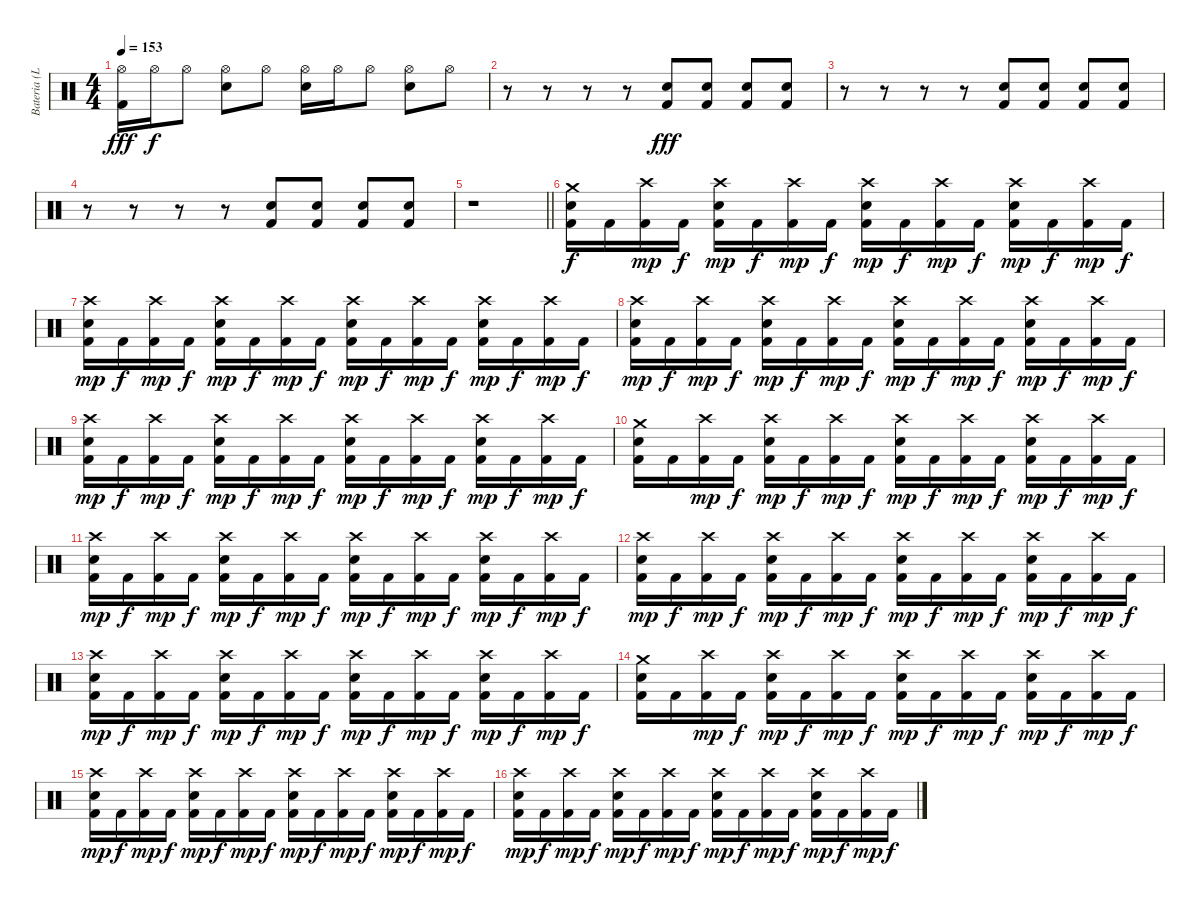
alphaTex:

\track ("Bateria (Lars)" "Bateria (L") {instrument percussion}
\staff {score}
\articulation defaults
\ts (4 4)
\tempo 153
\clef neutral
\ks c
("Hi-Hat (open)" "Kick (hit) 2").16{dy fff} "Hi-Hat (open)".16{dy f} "Hi-Hat (open)".8 ("Hi-Hat (open)" "Electric Snare (hit)").8 "Hi-Hat (open)".8 ("Hi-Hat (open)" "Electric Snare (hit)").16 "Hi-Hat (open)".16 "Hi-Hat (open)".8 ("Hi-Hat (open)" "Electric Snare (hit)").8 "Hi-Hat (open)".8 |
r.8 r.8 r.8 r.8 ("Electric Snare (hit)" "Kick (hit) 2").8{dy fff} ("Electric Snare (hit)" "Kick (hit) 2").8 ("Electric Snare (hit)" "Kick (hit) 2").8 ("Electric Snare (hit)" "Kick (hit) 2").8 |
r.8 r.8 r.8 r.8 ("Electric Snare (hit)" "Kick (hit) 2").8 ("Electric Snare (hit)" "Kick (hit) 2").8 ("Electric Snare (hit)" "Kick (hit) 2").8 ("Electric Snare (hit)" "Kick (hit) 2").8 |
r.8 r.8 r.8 r.8 ("Electric Snare (hit)" "Kick (hit) 2").8 ("Electric Snare (hit)" "Kick (hit) 2").8 ("Electric Snare (hit)" "Kick (hit) 2").8 ("Electric Snare (hit)" "Kick (hit) 2").8 |
\barLineRight lightlight
r.1 |
("Crash medium (hit)" "Electric Snare (hit)" "Kick (hit) 2").16{dy f} "Kick (hit) 2".16 ("Crash high (hit)" "Kick (hit) 2").16{dy mp} "Kick (hit) 2".16{dy f} ("Crash high (hit)" "Electric Snare (hit)" "Kick (hit) 2").16{dy mp} "Kick (hit) 2".16{dy f} ("Crash high (hit)" "Kick (hit) 2").16{dy mp} "Kick (hit) 2".16{dy f} ("Crash high (hit)" "Electric Snare (hit)" "Kick (hit) 2").16{dy mp} "Kick (hit) 2".16{dy f} ("Crash high (hit)" "Kick (hit) 2").16{dy mp} "Kick (hit) 2".16{dy f} ("Crash high (hit)" "Electric Snare (hit)" "Kick (hit) 2").16{dy mp} "Kick (hit) 2".16{dy f} ("Crash high (hit)" "Kick (hit) 2").16{dy mp} "Kick (hit) 2".16{dy f} |
("Crash high (hit)" "Electric Snare (hit)" "Kick (hit) 2").16{dy mp} "Kick (hit) 2".16{dy f} ("Crash high (hit)" "Kick (hit) 2").16{dy mp} "Kick (hit) 2".16{dy f} ("Crash high (hit)" "Electric Snare (hit)" "Kick (hit) 2").16{dy mp} "Kick (hit) 2".16{dy f} ("Crash high (hit)" "Kick (hit) 2").16{dy mp} "Kick (hit) 2".16{dy f} ("Crash high (hit)" "Electric Snare (hit)" "Kick (hit) 2").16{dy mp} "Kick (hit) 2".16{dy f} ("Crash high (hit)" "Kick (hit) 2").16{dy mp} "Kick (hit) 2".16{dy f} ("Crash high (hit)" "Electric Snare (hit)" "Kick (hit) 2").16{dy mp} "Kick (hit) 2".16{dy f} ("Crash high (hit)" "Kick (hit) 2").16{dy mp} "Kick (hit) 2".16{dy f} |
("Crash high (hit)" "Electric Snare (hit)" "Kick (hit) 2").16{dy mp} "Kick (hit) 2".16{dy f} ("Crash high (hit)" "Kick (hit) 2").16{dy mp} "Kick (hit) 2".16{dy f} ("Crash high (hit)" "Electric Snare (hit)" "Kick (hit) 2").16{dy mp} "Kick (hit) 2".16{dy f} ("Crash high (hit)" "Kick (hit) 2").16{dy mp} "Kick (hit) 2".16{dy f} ("Crash high (hit)" "Electric Snare (hit)" "Kick (hit) 2").16{dy mp} "Kick (hit) 2".16{dy f} ("Crash high (hit)" "Kick (hit) 2").16{dy mp} "Kick (hit) 2".16{dy f} ("Crash high (hit)" "Electric Snare (hit)" "Kick (hit) 2").16{dy mp} "Kick (hit) 2".16{dy f} ("Crash high (hit)" "Kick (hit) 2").16{dy mp} "Kick (hit) 2".16{dy f} |
("Crash high (hit)" "Electric Snare (hit)" "Kick (hit) 2").16{dy mp} "Kick (hit) 2".16{dy f} ("Crash high (hit)" "Kick (hit) 2").16{dy mp} "Kick (hit) 2".16{dy f} ("Crash high (hit)" "Electric Snare (hit)" "Kick (hit) 2").16{dy mp} "Kick (hit) 2".16{dy f} ("Crash high (hit)" "Kick (hit) 2").16{dy mp} "Kick (hit) 2".16{dy f} ("Crash high (hit)" "Electric Snare (hit)" "Kick (hit) 2").16{dy mp} "Kick (hit) 2".16{dy f} ("Crash high (hit)" "Kick (hit) 2").16{dy mp} "Kick (hit) 2".16{dy f} ("Crash high (hit)" "Electric Snare (hit)" "Kick (hit) 2").16{dy mp} "Kick (hit) 2".16{dy f} ("Crash high (hit)" "Kick (hit) 2").16{dy mp} "Kick (hit) 2".16{dy f} |
("Crash medium (hit)" "Electric Snare (hit)" "Kick (hit) 2").16 "Kick (hit) 2".16 ("Crash high (hit)" "Kick (hit) 2").16{dy mp} "Kick (hit) 2".16{dy f} ("Crash high (hit)" "Electric Snare (hit)" "Kick (hit) 2").16{dy mp} "Kick (hit) 2".16{dy f} ("Crash high (hit)" "Kick (hit) 2").16{dy mp} "Kick (hit) 2".16{dy f} ("Crash high (hit)" "Electric Snare (hit)" "Kick (hit) 2").16{dy mp} "Kick (hit) 2".16{dy f} ("Crash high (hit)" "Kick (hit) 2").16{dy mp} "Kick (hit) 2".16{dy f} ("Crash high (hit)" "Electric Snare (hit)" "Kick (hit) 2").16{dy mp} "Kick (hit) 2".16{dy f} ("Crash high (hit)" "Kick (hit) 2").16{dy mp} "Kick (hit) 2".16{dy f} |
("Crash high (hit)" "Electric Snare (hit)" "Kick (hit) 2").16{dy mp} "Kick (hit) 2".16{dy f} ("Crash high (hit)" "Kick (hit) 2").16{dy mp} "Kick (hit) 2".16{dy f} ("Crash high (hit)" "Electric Snare (hit)" "Kick (hit) 2").16{dy mp} "Kick (hit) 2".16{dy f} ("Crash high (hit)" "Kick (hit) 2").16{dy mp} "Kick (hit) 2".16{dy f} ("Crash high (hit)" "Electric Snare (hit)" "Kick (hit) 2").16{dy mp} "Kick (hit) 2".16{dy f} ("Crash high (hit)" "Kick (hit) 2").16{dy mp} "Kick (hit) 2".16{dy f} ("Crash high (hit)" "Electric Snare (hit)" "Kick (hit) 2").16{dy mp} "Kick (hit) 2".16{dy f} ("Crash high (hit)" "Kick (hit) 2").16{dy mp} "Kick (hit) 2".16{dy f} |
("Crash high (hit)" "Electric Snare (hit)" "Kick (hit) 2").16{dy mp} "Kick (hit) 2".16{dy f} ("Crash high (hit)" "Kick (hit) 2").16{dy mp} "Kick (hit) 2".16{dy f} ("Crash high (hit)" "Electric Snare (hit)" "Kick (hit) 2").16{dy mp} "Kick (hit) 2".16{dy f} ("Crash high (hit)" "Kick (hit) 2").16{dy mp} "Kick (hit) 2".16{dy f} ("Crash high (hit)" "Electric Snare (hit)" "Kick (hit) 2").16{dy mp} "Kick (hit) 2".16{dy f} ("Crash high (hit)" "Kick (hit) 2").16{dy mp} "Kick (hit) 2".16{dy f} ("Crash high (hit)" "Electric Snare (hit)" "Kick (hit) 2").16{dy mp} "Kick (hit) 2".16{dy f} ("Crash high (hit)" "Kick (hit) 2").16{dy mp} "Kick (hit) 2".16{dy f} |
("Crash high (hit)" "Electric Snare (hit)" "Kick (hit) 2").16{dy mp} "Kick (hit) 2".16{dy f} ("Crash high (hit)" "Kick (hit) 2").16{dy mp} "Kick (hit) 2".16{dy f} ("Crash high (hit)" "Electric Snare (hit)" "Kick (hit) 2").16{dy mp} "Kick (hit) 2".16{dy f} ("Crash high (hit)" "Kick (hit) 2").16{dy mp} "Kick (hit) 2".16{dy f} ("Crash high (hit)" "Electric Snare (hit)" "Kick (hit) 2").16{dy mp} "Kick (hit) 2".16{dy f} ("Crash high (hit)" "Kick (hit) 2").16{dy mp} "Kick (hit) 2".16{dy f} ("Crash high (hit)" "Electric Snare (hit)" "Kick (hit) 2").16{dy mp} "Kick (hit) 2".16{dy f} ("Crash high (hit)" "Kick (hit) 2").16{dy mp} "Kick (hit) 2".16{dy f} |
("Crash medium (hit)" "Electric Snare (hit)" "Kick (hit) 2").16 "Kick (hit) 2".16 ("Crash high (hit)" "Kick (hit) 2").16{dy mp} "Kick (hit) 2".16{dy f} ("Crash high (hit)" "Electric Snare (hit)" "Kick (hit) 2").16{dy mp} "Kick (hit) 2".16{dy f} ("Crash high (hit)" "Kick (hit) 2").16{dy mp} "Kick (hit) 2".16{dy f} ("Crash high (hit)" "Electric Snare (hit)" "Kick (hit) 2").16{dy mp} "Kick (hit) 2".16{dy f} ("Crash high (hit)" "Kick (hit) 2").16{dy mp} "Kick (hit) 2".16{dy f} ("Crash high (hit)" "Electric Snare (hit)" "Kick (hit) 2").16{dy mp} "Kick (hit) 2".16{dy f} ("Crash high (hit)" "Kick (hit) 2").16{dy mp} "Kick (hit) 2".16{dy f} |
("Crash high (hit)" "Electric Snare (hit)" "Kick (hit) 2").16{dy mp} "Kick (hit) 2".16{dy f} ("Crash high (hit)" "Kick (hit) 2").16{dy mp} "Kick (hit) 2".16{dy f} ("Crash high (hit)" "Electric Snare (hit)" "Kick (hit) 2").16{dy mp} "Kick (hit) 2".16{dy f} ("Crash high (hit)" "Kick (hit) 2").16{dy mp} "Kick (hit) 2".16{dy f} ("Crash high (hit)" "Electric Snare (hit)" "Kick (hit) 2").16{dy mp} "Kick (hit) 2".16{dy f} ("Crash high (hit)" "Kick (hit) 2").16{dy mp} "Kick (hit) 2".16{dy f} ("Crash high (hit)" "Electric Snare (hit)" "Kick (hit) 2").16{dy mp} "Kick (hit) 2".16{dy f} ("Crash high (hit)" "Kick (hit) 2").16{dy mp} "Kick (hit) 2".16{dy f} |
("Crash high (hit)" "Electric Snare (hit)" "Kick (hit) 2").16{dy mp} "Kick (hit) 2".16{dy f} ("Crash high (hit)" "Kick (hit) 2").16{dy mp} "Kick (hit) 2".16{dy f} ("Crash high (hit)" "Electric Snare (hit)" "Kick (hit) 2").16{dy mp} "Kick (hit) 2".16{dy f} ("Crash high (hit)" "Kick (hit) 2").16{dy mp} "Kick (hit) 2".16{dy f} ("Crash high (hit)" "Electric Snare (hit)" "Kick (hit) 2").16{dy mp} "Kick (hit) 2".16{dy f} ("Crash high (hit)" "Kick (hit) 2").16{dy mp} "Kick (hit) 2".16{dy f} ("Crash high (hit)" "Electric Snare (hit)" "Kick (hit) 2").16{dy mp} "Kick (hit) 2".16{dy f} ("Crash high (hit)" "Kick (hit) 2").16{dy mp} "Kick (hit) 2".16{dy f}
